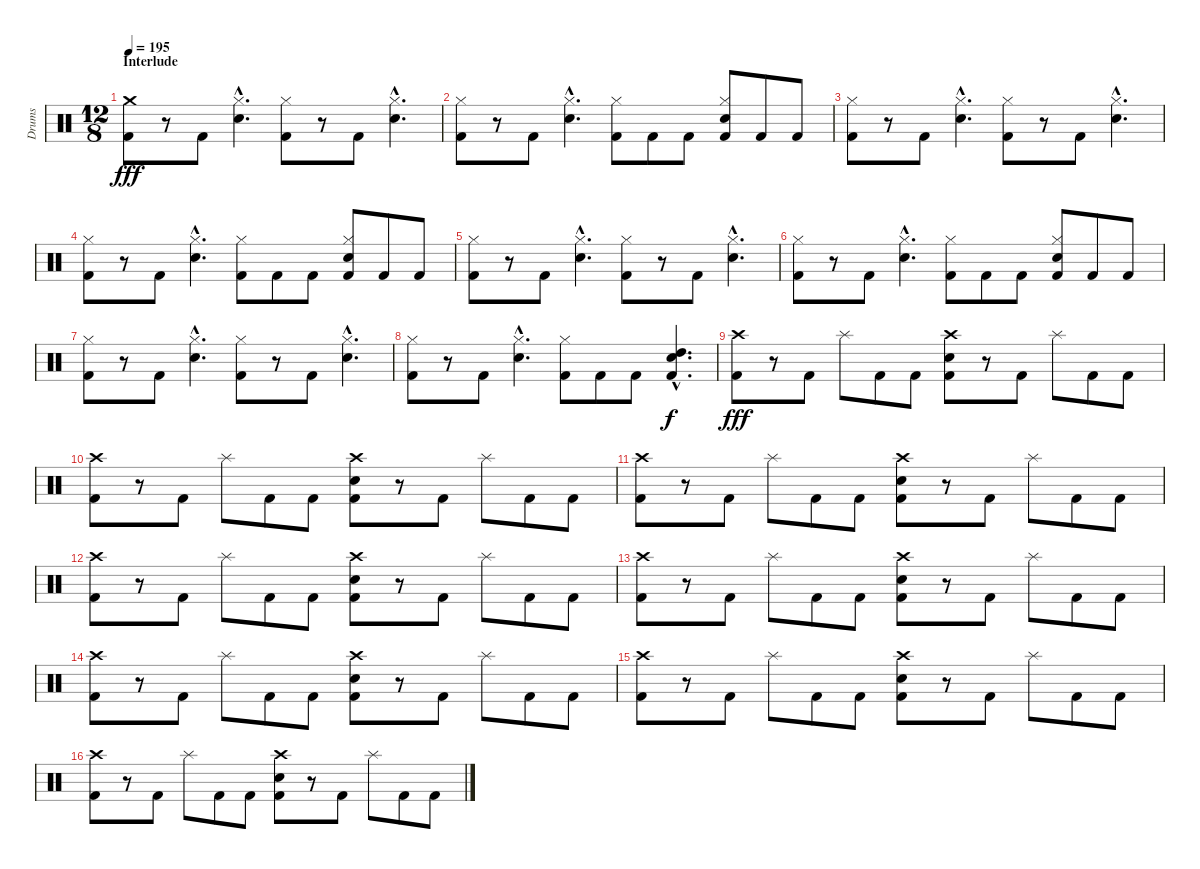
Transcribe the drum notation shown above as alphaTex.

\track ("Drums" "Drums") {instrument percussion}
\staff {score}
\articulation defaults
\ts (12 8)
\section ("" "Interlude")
\tempo 195
\clef neutral
\ks c
("Crash medium (hit)" "Kick (hit) 2").8{dy fff} r.8 "Kick (hit) 2".8 ("Hi-Hat (closed)"{hac} "Electric Snare (hit)"{hac}).4{d} ("Hi-Hat (closed)" "Kick (hit) 2").8 r.8 "Kick (hit) 2".8 ("Hi-Hat (closed)"{hac} "Electric Snare (hit)"{hac}).4{d} |
("Hi-Hat (closed)" "Kick (hit) 2").8 r.8 "Kick (hit) 2".8 ("Hi-Hat (closed)"{hac} "Electric Snare (hit)"{hac}).4{d} ("Hi-Hat (closed)" "Kick (hit) 2").8 "Kick (hit) 2".8 "Kick (hit) 2".8 ("Hi-Hat (closed)" "Electric Snare (hit)" "Kick (hit) 2").8 "Kick (hit) 2".8 "Kick (hit) 2".8 |
("Hi-Hat (closed)" "Kick (hit) 2").8 r.8 "Kick (hit) 2".8 ("Hi-Hat (closed)"{hac} "Electric Snare (hit)"{hac}).4{d} ("Hi-Hat (closed)" "Kick (hit) 2").8 r.8 "Kick (hit) 2".8 ("Hi-Hat (closed)"{hac} "Electric Snare (hit)"{hac}).4{d} |
("Hi-Hat (closed)" "Kick (hit) 2").8 r.8 "Kick (hit) 2".8 ("Hi-Hat (closed)"{hac} "Electric Snare (hit)"{hac}).4{d} ("Hi-Hat (closed)" "Kick (hit) 2").8 "Kick (hit) 2".8 "Kick (hit) 2".8 ("Hi-Hat (closed)" "Electric Snare (hit)" "Kick (hit) 2").8 "Kick (hit) 2".8 "Kick (hit) 2".8 |
("Hi-Hat (closed)" "Kick (hit) 2").8 r.8 "Kick (hit) 2".8 ("Hi-Hat (closed)"{hac} "Electric Snare (hit)"{hac}).4{d} ("Hi-Hat (closed)" "Kick (hit) 2").8 r.8 "Kick (hit) 2".8 ("Hi-Hat (closed)"{hac} "Electric Snare (hit)"{hac}).4{d} |
("Hi-Hat (closed)" "Kick (hit) 2").8 r.8 "Kick (hit) 2".8 ("Hi-Hat (closed)"{hac} "Electric Snare (hit)"{hac}).4{d} ("Hi-Hat (closed)" "Kick (hit) 2").8 "Kick (hit) 2".8 "Kick (hit) 2".8 ("Hi-Hat (closed)" "Electric Snare (hit)" "Kick (hit) 2").8 "Kick (hit) 2".8 "Kick (hit) 2".8 |
("Hi-Hat (closed)" "Kick (hit) 2").8 r.8 "Kick (hit) 2".8 ("Hi-Hat (closed)"{hac} "Electric Snare (hit)"{hac}).4{d} ("Hi-Hat (closed)" "Kick (hit) 2").8 r.8 "Kick (hit) 2".8 ("Hi-Hat (closed)"{hac} "Electric Snare (hit)"{hac}).4{d} |
("Hi-Hat (closed)" "Kick (hit) 2").8 r.8 "Kick (hit) 2".8 ("Hi-Hat (closed)"{hac} "Electric Snare (hit)"{hac}).4{d} ("Hi-Hat (closed)" "Kick (hit) 2").8 "Kick (hit) 2".8 "Kick (hit) 2".8 ("High Tom (hit)"{hac} "Electric Snare (hit)"{hac} "Kick (hit) 2"{hac}).4{d dy f} |
("Crash high (hit)" "Kick (hit) 2").8{dy fff} r.8 "Kick (hit) 2".8 "Splash (hit)".8 "Kick (hit) 2".8 "Kick (hit) 2".8 ("Crash high (hit)" "Electric Snare (hit)" "Kick (hit) 2").8 r.8 "Kick (hit) 2".8 "Splash (hit)".8 "Kick (hit) 2".8 "Kick (hit) 2".8 |
("Crash high (hit)" "Kick (hit) 2").8 r.8 "Kick (hit) 2".8 "Splash (hit)".8 "Kick (hit) 2".8 "Kick (hit) 2".8 ("Crash high (hit)" "Electric Snare (hit)" "Kick (hit) 2").8 r.8 "Kick (hit) 2".8 "Splash (hit)".8 "Kick (hit) 2".8 "Kick (hit) 2".8 |
("Crash high (hit)" "Kick (hit) 2").8 r.8 "Kick (hit) 2".8 "Splash (hit)".8 "Kick (hit) 2".8 "Kick (hit) 2".8 ("Crash high (hit)" "Electric Snare (hit)" "Kick (hit) 2").8 r.8 "Kick (hit) 2".8 "Splash (hit)".8 "Kick (hit) 2".8 "Kick (hit) 2".8 |
("Crash high (hit)" "Kick (hit) 2").8 r.8 "Kick (hit) 2".8 "Splash (hit)".8 "Kick (hit) 2".8 "Kick (hit) 2".8 ("Crash high (hit)" "Electric Snare (hit)" "Kick (hit) 2").8 r.8 "Kick (hit) 2".8 "Splash (hit)".8 "Kick (hit) 2".8 "Kick (hit) 2".8 |
("Crash high (hit)" "Kick (hit) 2").8 r.8 "Kick (hit) 2".8 "Splash (hit)".8 "Kick (hit) 2".8 "Kick (hit) 2".8 ("Crash high (hit)" "Electric Snare (hit)" "Kick (hit) 2").8 r.8 "Kick (hit) 2".8 "Splash (hit)".8 "Kick (hit) 2".8 "Kick (hit) 2".8 |
("Crash high (hit)" "Kick (hit) 2").8 r.8 "Kick (hit) 2".8 "Splash (hit)".8 "Kick (hit) 2".8 "Kick (hit) 2".8 ("Crash high (hit)" "Electric Snare (hit)" "Kick (hit) 2").8 r.8 "Kick (hit) 2".8 "Splash (hit)".8 "Kick (hit) 2".8 "Kick (hit) 2".8 |
("Crash high (hit)" "Kick (hit) 2").8 r.8 "Kick (hit) 2".8 "Splash (hit)".8 "Kick (hit) 2".8 "Kick (hit) 2".8 ("Crash high (hit)" "Electric Snare (hit)" "Kick (hit) 2").8 r.8 "Kick (hit) 2".8 "Splash (hit)".8 "Kick (hit) 2".8 "Kick (hit) 2".8 |
("Crash high (hit)" "Kick (hit) 2").8 r.8 "Kick (hit) 2".8 "Splash (hit)".8 "Kick (hit) 2".8 "Kick (hit) 2".8 ("Crash high (hit)" "Electric Snare (hit)" "Kick (hit) 2").8 r.8 "Kick (hit) 2".8 "Splash (hit)".8 "Kick (hit) 2".8 "Kick (hit) 2".8
